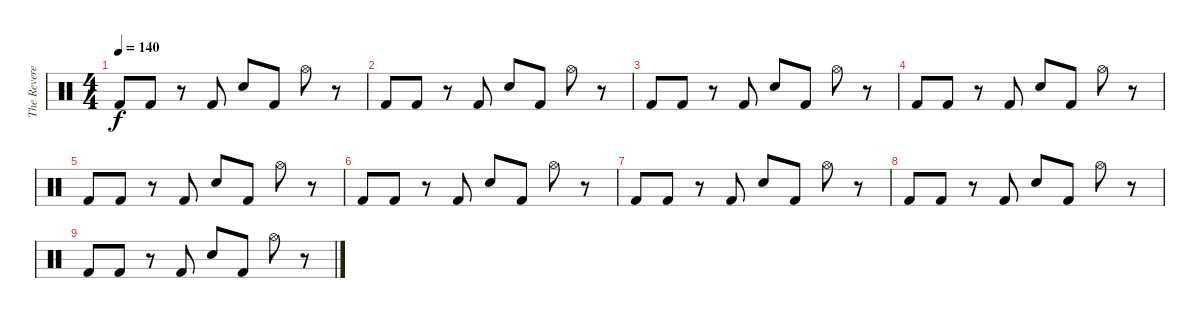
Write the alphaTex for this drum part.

\track ("The Reverend" "The Revere") {instrument percussion}
\staff {score}
\articulation defaults
\ts (4 4)
\tempo 140
\clef neutral
\ks c "Kick (hit) 2".8{dy f} "Kick (hit) 2".8
r.8 "Kick (hit) 2".8 "Snare (hit) 2".8 "Kick (hit) 2".8 "Hi-Hat (open)".8 r.8 |
"Kick (hit) 2".8{volume 14} "Kick (hit) 2".8 r.8 "Kick (hit) 2".8 "Snare (hit) 2".8 "Kick (hit) 2".8 "Hi-Hat (open)".8 r.8 |
"Kick (hit) 2".8{volume 12} "Kick (hit) 2".8 r.8 "Kick (hit) 2".8 "Snare (hit) 2".8 "Kick (hit) 2".8 "Hi-Hat (open)".8 r.8 |
"Kick (hit) 2".8{volume 10} "Kick (hit) 2".8 r.8 "Kick (hit) 2".8 "Snare (hit) 2".8 "Kick (hit) 2".8 "Hi-Hat (open)".8 r.8 |
"Kick (hit) 2".8{volume 8} "Kick (hit) 2".8 r.8 "Kick (hit) 2".8 "Snare (hit) 2".8 "Kick (hit) 2".8 "Hi-Hat (open)".8 r.8 |
"Kick (hit) 2".8{volume 6} "Kick (hit) 2".8 r.8 "Kick (hit) 2".8 "Snare (hit) 2".8 "Kick (hit) 2".8 "Hi-Hat (open)".8 r.8 |
"Kick (hit) 2".8{volume 4} "Kick (hit) 2".8 r.8 "Kick (hit) 2".8 "Snare (hit) 2".8 "Kick (hit) 2".8 "Hi-Hat (open)".8 r.8 |
"Kick (hit) 2".8{volume 2} "Kick (hit) 2".8 r.8 "Kick (hit) 2".8 "Snare (hit) 2".8 "Kick (hit) 2".8 "Hi-Hat (open)".8 r.8 |
"Kick (hit) 2".8{volume 0} "Kick (hit) 2".8 r.8 "Kick (hit) 2".8 "Snare (hit) 2".8 "Kick (hit) 2".8 "Hi-Hat (open)".8 r.8
